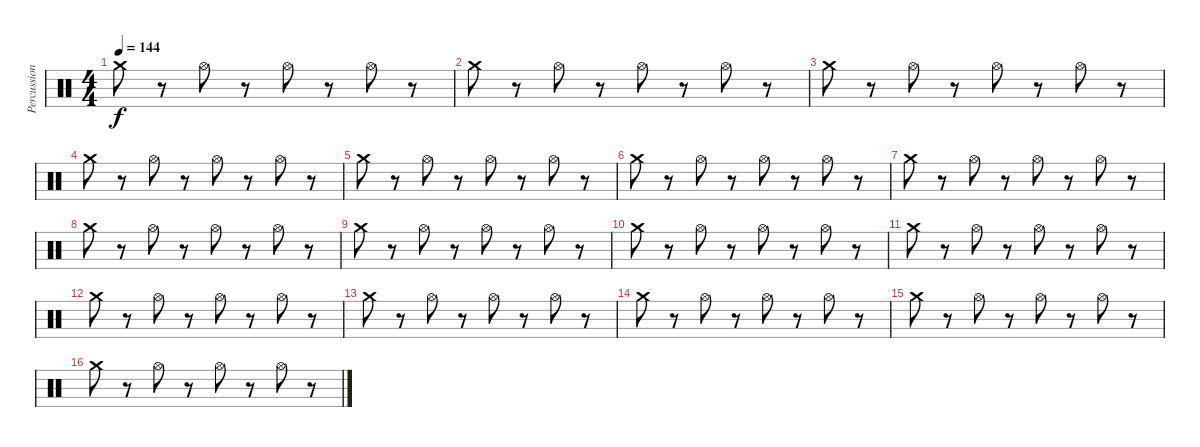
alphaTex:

\track ("Percussions" "Percussion") {instrument percussion}
\staff {score}
\articulation defaults
\ts (4 4)
\tempo 144
\clef neutral
\ks c "Crash medium (hit)".8{dy f}
r.8 "Hi-Hat (open)".8 r.8 "Hi-Hat (open)".8 r.8 "Hi-Hat (open)".8 r.8 |
"Crash medium (hit)".8 r.8 "Hi-Hat (open)".8 r.8 "Hi-Hat (open)".8 r.8 "Hi-Hat (open)".8 r.8 |
"Crash medium (hit)".8 r.8 "Hi-Hat (open)".8 r.8 "Hi-Hat (open)".8 r.8 "Hi-Hat (open)".8 r.8 |
"Crash medium (hit)".8 r.8 "Hi-Hat (open)".8 r.8 "Hi-Hat (open)".8 r.8 "Hi-Hat (open)".8 r.8 |
"Crash medium (hit)".8 r.8 "Hi-Hat (open)".8 r.8 "Hi-Hat (open)".8 r.8 "Hi-Hat (open)".8 r.8 |
"Crash medium (hit)".8 r.8 "Hi-Hat (open)".8 r.8 "Hi-Hat (open)".8 r.8 "Hi-Hat (open)".8 r.8 |
"Crash medium (hit)".8 r.8 "Hi-Hat (open)".8 r.8 "Hi-Hat (open)".8 r.8 "Hi-Hat (open)".8 r.8 |
"Crash medium (hit)".8 r.8 "Hi-Hat (open)".8 r.8 "Hi-Hat (open)".8 r.8 "Hi-Hat (open)".8 r.8 |
"Crash medium (hit)".8 r.8 "Hi-Hat (open)".8 r.8 "Hi-Hat (open)".8 r.8 "Hi-Hat (open)".8 r.8 |
"Crash medium (hit)".8 r.8 "Hi-Hat (open)".8 r.8 "Hi-Hat (open)".8 r.8 "Hi-Hat (open)".8 r.8 |
"Crash medium (hit)".8 r.8 "Hi-Hat (open)".8 r.8 "Hi-Hat (open)".8 r.8 "Hi-Hat (open)".8 r.8 |
"Crash medium (hit)".8 r.8 "Hi-Hat (open)".8 r.8 "Hi-Hat (open)".8 r.8 "Hi-Hat (open)".8 r.8 |
"Crash medium (hit)".8 r.8 "Hi-Hat (open)".8 r.8 "Hi-Hat (open)".8 r.8 "Hi-Hat (open)".8 r.8 |
"Crash medium (hit)".8 r.8 "Hi-Hat (open)".8 r.8 "Hi-Hat (open)".8 r.8 "Hi-Hat (open)".8 r.8 |
"Crash medium (hit)".8 r.8 "Hi-Hat (open)".8 r.8 "Hi-Hat (open)".8 r.8 "Hi-Hat (open)".8 r.8 |
"Crash medium (hit)".8 r.8 "Hi-Hat (open)".8 r.8 "Hi-Hat (open)".8 r.8 "Hi-Hat (open)".8 r.8
